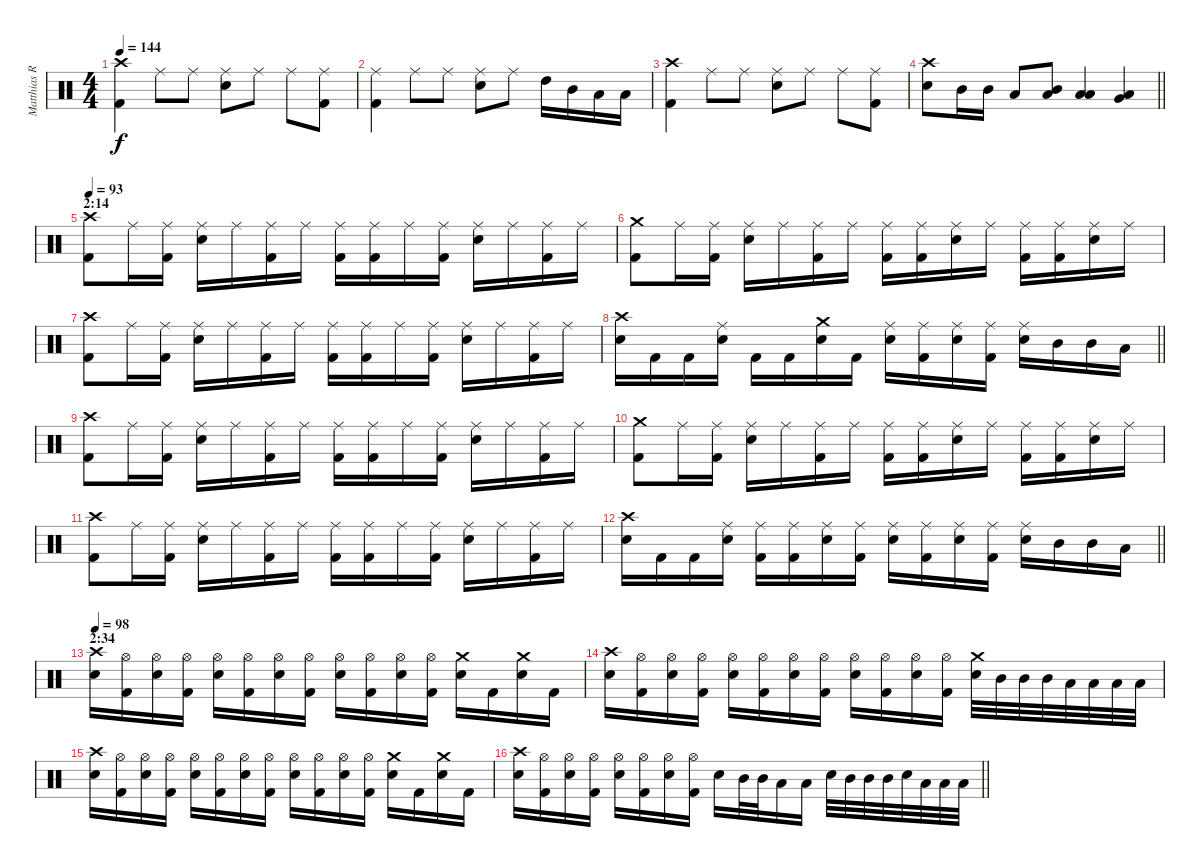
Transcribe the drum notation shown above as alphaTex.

\track ("Matthias R." "Matthias R") {instrument percussion}
\staff {score}
\articulation defaults
\ts (4 4)
\tempo 144
\clef neutral
\ks c
("Kick (hit) 2" "Crash high (hit)").4{dy f} "Ride (middle)".8 "Ride (middle)".8 ("Snare (hit) 2" "Ride (middle)").8 "Ride (middle)".8 "Ride (middle)".8 ("Kick (hit) 2" "Ride (middle)").8 |
("Kick (hit) 2" "Ride (middle)").4 "Ride (middle)".8 "Ride (middle)".8 ("Snare (hit) 2" "Ride (middle)").8 "Ride (middle)".8 "High Tom (hit)".16 "Mid Tom (hit)".16 "Low Tom (hit)".16 "Low Tom (hit)".16 |
("Kick (hit) 2" "Crash high (hit)").4 "Ride (middle)".8 "Ride (middle)".8 ("Snare (hit) 2" "Ride (middle)").8 "Ride (middle)".8 "Ride (middle)".8 ("Kick (hit) 2" "Ride (middle)").8 |
\barLineRight lightlight
("Snare (hit) 2" "Crash high (hit)").8 "Mid Tom (hit)".16 "Mid Tom (hit)".16 "Low Tom (hit)".8 ("Mid Tom (hit)" "Low Tom (hit)").8 ("Low Tom (hit)" "Low Tom (hit)").4 ("Low Tom (hit)" "Very Low Tom (hit)").4 |
\section ("" "2:14")
\tempo 93
("Kick (hit) 2" "Crash high (hit)").8 "Ride (middle)".16 ("Kick (hit) 2" "Ride (middle)").16 ("Snare (hit) 2" "Ride (middle)").16 "Ride (middle)".16 ("Kick (hit) 2" "Ride (middle)").16 "Ride (middle)".16 ("Kick (hit) 2" "Ride (middle)").16 ("Kick (hit) 2" "Ride (middle)").16 "Ride (middle)".16 ("Kick (hit) 2" "Ride (middle)").16 ("Snare (hit) 2" "Ride (middle)").16 "Ride (middle)".16 ("Kick (hit) 2" "Ride (middle)").16 "Ride (middle)".16 |
("Kick (hit) 2" "Crash medium (hit)").8 "Ride (middle)".16 ("Kick (hit) 2" "Ride (middle)").16 ("Snare (hit) 2" "Ride (middle)").16 "Ride (middle)".16 ("Kick (hit) 2" "Ride (middle)").16 "Ride (middle)".16 ("Kick (hit) 2" "Ride (middle)").16 ("Kick (hit) 2" "Ride (middle)").16 ("Snare (hit) 2" "Ride (middle)").16 "Ride (middle)".16 ("Kick (hit) 2" "Ride (middle)").16 ("Kick (hit) 2" "Ride (middle)").16 ("Snare (hit) 2" "Ride (middle)").16 "Ride (middle)".16 |
("Kick (hit) 2" "Crash high (hit)").8 "Ride (middle)".16 ("Kick (hit) 2" "Ride (middle)").16 ("Snare (hit) 2" "Ride (middle)").16 "Ride (middle)".16 ("Kick (hit) 2" "Ride (middle)").16 "Ride (middle)".16 ("Kick (hit) 2" "Ride (middle)").16 ("Kick (hit) 2" "Ride (middle)").16 "Ride (middle)".16 ("Kick (hit) 2" "Ride (middle)").16 ("Snare (hit) 2" "Ride (middle)").16 "Ride (middle)".16 ("Kick (hit) 2" "Ride (middle)").16 "Ride (middle)".16 |
\barLineRight lightlight
("Snare (hit) 2" "Crash high (hit)").16 "Kick (hit) 2".16 "Kick (hit) 2".16 ("Snare (hit) 2" "Ride (middle)").16 "Kick (hit) 2".16 "Kick (hit) 2".16 ("Snare (hit) 2" "Crash medium (hit)").16 "Kick (hit) 2".16 ("Snare (hit) 2" "Ride (middle)").16 ("Kick (hit) 2" "Ride (middle)").16 ("Snare (hit) 2" "Ride (middle)").16 ("Kick (hit) 2" "Ride (middle)").16 ("Snare (hit) 2" "Ride (middle)").16 "Mid Tom (hit)".16 "Mid Tom (hit)".16 "Low Tom (hit)".16 |
("Kick (hit) 2" "Crash high (hit)").8 "Ride (middle)".16 ("Kick (hit) 2" "Ride (middle)").16 ("Snare (hit) 2" "Ride (middle)").16 "Ride (middle)".16 ("Kick (hit) 2" "Ride (middle)").16 "Ride (middle)".16 ("Kick (hit) 2" "Ride (middle)").16 ("Kick (hit) 2" "Ride (middle)").16 "Ride (middle)".16 ("Kick (hit) 2" "Ride (middle)").16 ("Snare (hit) 2" "Ride (middle)").16 "Ride (middle)".16 ("Kick (hit) 2" "Ride (middle)").16 "Ride (middle)".16 |
("Kick (hit) 2" "Crash medium (hit)").8 "Ride (middle)".16 ("Kick (hit) 2" "Ride (middle)").16 ("Snare (hit) 2" "Ride (middle)").16 "Ride (middle)".16 ("Kick (hit) 2" "Ride (middle)").16 "Ride (middle)".16 ("Kick (hit) 2" "Ride (middle)").16 ("Kick (hit) 2" "Ride (middle)").16 ("Snare (hit) 2" "Ride (middle)").16 "Ride (middle)".16 ("Kick (hit) 2" "Ride (middle)").16 ("Kick (hit) 2" "Ride (middle)").16 ("Snare (hit) 2" "Ride (middle)").16 "Ride (middle)".16 |
("Kick (hit) 2" "Crash high (hit)").8 "Ride (middle)".16 ("Kick (hit) 2" "Ride (middle)").16 ("Snare (hit) 2" "Ride (middle)").16 "Ride (middle)".16 ("Kick (hit) 2" "Ride (middle)").16 "Ride (middle)".16 ("Kick (hit) 2" "Ride (middle)").16 ("Kick (hit) 2" "Ride (middle)").16 "Ride (middle)".16 ("Kick (hit) 2" "Ride (middle)").16 ("Snare (hit) 2" "Ride (middle)").16 "Ride (middle)".16 ("Kick (hit) 2" "Ride (middle)").16 "Ride (middle)".16 |
\barLineRight lightlight
("Snare (hit) 2" "Crash high (hit)").16 "Kick (hit) 2".16 "Kick (hit) 2".16 ("Snare (hit) 2" "Ride (middle)").16 ("Kick (hit) 2" "Ride (middle)").16 ("Kick (hit) 2" "Ride (middle)").16 ("Snare (hit) 2" "Ride (middle)").16 ("Kick (hit) 2" "Ride (middle)").16 ("Snare (hit) 2" "Ride (middle)").16 ("Kick (hit) 2" "Ride (middle)").16 ("Snare (hit) 2" "Ride (middle)").16 ("Kick (hit) 2" "Ride (middle)").16 ("Snare (hit) 2" "Ride (middle)").16 "Mid Tom (hit)".16 "Mid Tom (hit)".16 "Low Tom (hit)".16 |
\section ("" "2:34")
\tempo 98
("Snare (hit) 2" "Crash high (hit)").16 ("Kick (hit) 2" "Hi-Hat (open)").16 ("Snare (hit) 2" "Hi-Hat (open)").16 ("Kick (hit) 2" "Hi-Hat (open)").16 ("Snare (hit) 2" "Hi-Hat (open)").16 ("Kick (hit) 2" "Hi-Hat (open)").16 ("Snare (hit) 2" "Hi-Hat (open)").16 ("Kick (hit) 2" "Hi-Hat (open)").16 ("Snare (hit) 2" "Hi-Hat (open)").16 ("Kick (hit) 2" "Hi-Hat (open)").16 ("Snare (hit) 2" "Hi-Hat (open)").16 ("Kick (hit) 2" "Hi-Hat (open)").16 ("Snare (hit) 2" "Crash medium (hit)").16 "Kick (hit) 2".16 ("Snare (hit) 2" "Crash medium (hit)").16 "Kick (hit) 2".16 |
("Snare (hit) 2" "Crash high (hit)").16 ("Kick (hit) 2" "Hi-Hat (open)").16 ("Snare (hit) 2" "Hi-Hat (open)").16 ("Kick (hit) 2" "Hi-Hat (open)").16 ("Snare (hit) 2" "Hi-Hat (open)").16 ("Kick (hit) 2" "Hi-Hat (open)").16 ("Snare (hit) 2" "Hi-Hat (open)").16 ("Kick (hit) 2" "Hi-Hat (open)").16 ("Snare (hit) 2" "Hi-Hat (open)").16 ("Kick (hit) 2" "Hi-Hat (open)").16 ("Snare (hit) 2" "Hi-Hat (open)").16 ("Kick (hit) 2" "Hi-Hat (open)").16 ("Snare (hit) 2" "Crash medium (hit)").32 "Mid Tom (hit)".32 "Mid Tom (hit)".32 "Mid Tom (hit)".32 "Low Tom (hit)".32 "Low Tom (hit)".32 "Low Tom (hit)".32 "Low Tom (hit)".32 |
("Snare (hit) 2" "Crash high (hit)").16 ("Kick (hit) 2" "Hi-Hat (open)").16 ("Snare (hit) 2" "Hi-Hat (open)").16 ("Kick (hit) 2" "Hi-Hat (open)").16 ("Snare (hit) 2" "Hi-Hat (open)").16 ("Kick (hit) 2" "Hi-Hat (open)").16 ("Snare (hit) 2" "Hi-Hat (open)").16 ("Kick (hit) 2" "Hi-Hat (open)").16 ("Snare (hit) 2" "Hi-Hat (open)").16 ("Kick (hit) 2" "Hi-Hat (open)").16 ("Snare (hit) 2" "Hi-Hat (open)").16 ("Kick (hit) 2" "Hi-Hat (open)").16 ("Snare (hit) 2" "Crash medium (hit)").16 "Kick (hit) 2".16 ("Snare (hit) 2" "Crash medium (hit)").16 "Kick (hit) 2".16 |
\barLineRight lightlight
("Snare (hit) 2" "Crash high (hit)").16 ("Kick (hit) 2" "Hi-Hat (open)").16 ("Snare (hit) 2" "Hi-Hat (open)").16 ("Kick (hit) 2" "Hi-Hat (open)").16 ("Snare (hit) 2" "Hi-Hat (open)").16 ("Kick (hit) 2" "Hi-Hat (open)").16 ("Snare (hit) 2" "Hi-Hat (open)").16 ("Kick (hit) 2" "Hi-Hat (open)").16 "Snare (hit) 2".16 "Mid Tom (hit)".32 "Mid Tom (hit)".32 "Low Tom (hit)".16 "Low Tom (hit)".16 "Snare (hit) 2".32 "Mid Tom (hit)".32 "Mid Tom (hit)".32 "Mid Tom (hit)".32 "Snare (hit) 2".32 "Low Tom (hit)".32 "Low Tom (hit)".32 "Low Tom (hit)".32
